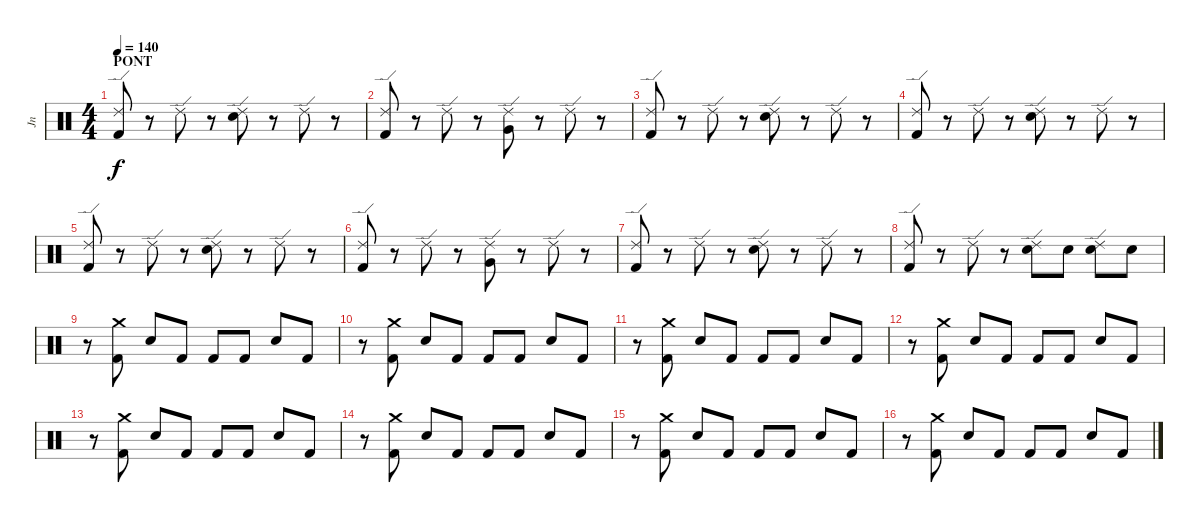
\track ("Jn" "Jn") {instrument percussion}
\staff {score}
\articulation defaults
\ts (4 4)
\section ("" "PONT")
\tempo 140
\clef neutral
\ks c
("Ride (edge) 2" "Kick (hit) 2").8{dy f} r.8 "Ride (edge) 2".8 r.8 ("Ride (edge) 2" "Electric Snare (hit)").8 r.8 "Ride (edge) 2".8 r.8 |
("Ride (edge) 2" "Kick (hit) 2").8 r.8 "Ride (edge) 2".8 r.8 ("Ride (edge) 2" "Very Low Tom (hit)").8 r.8 "Ride (edge) 2".8 r.8 |
("Ride (edge) 2" "Kick (hit) 2").8 r.8 "Ride (edge) 2".8 r.8 ("Ride (edge) 2" "Electric Snare (hit)").8 r.8 "Ride (edge) 2".8 r.8 |
("Ride (edge) 2" "Kick (hit) 2").8 r.8 "Ride (edge) 2".8 r.8 ("Ride (edge) 2" "Electric Snare (hit)").8 r.8 "Ride (edge) 2".8 r.8 |
("Ride (edge) 2" "Kick (hit) 2").8 r.8 "Ride (edge) 2".8 r.8 ("Ride (edge) 2" "Electric Snare (hit)").8 r.8 "Ride (edge) 2".8 r.8 |
("Ride (edge) 2" "Kick (hit) 2").8 r.8 "Ride (edge) 2".8 r.8 ("Ride (edge) 2" "Very Low Tom (hit)").8 r.8 "Ride (edge) 2".8 r.8 |
("Ride (edge) 2" "Kick (hit) 2").8 r.8 "Ride (edge) 2".8 r.8 ("Ride (edge) 2" "Electric Snare (hit)").8 r.8 "Ride (edge) 2".8 r.8 |
("Ride (edge) 2" "Kick (hit) 2").8 r.8 "Ride (edge) 2".8 r.8 ("Ride (edge) 2" "Electric Snare (hit)").8 "Electric Snare (hit)".8 ("Ride (edge) 2" "Electric Snare (hit)").8 "Electric Snare (hit)".8 |
r.8 ("Crash medium (hit)" "Kick (hit) 2").8 "Electric Snare (hit)".8 "Kick (hit) 2".8 "Kick (hit) 2".8 "Kick (hit) 2".8 "Electric Snare (hit)".8 "Kick (hit) 2".8 |
r.8 ("Crash medium (hit)" "Kick (hit) 2").8 "Electric Snare (hit)".8 "Kick (hit) 2".8 "Kick (hit) 2".8 "Kick (hit) 2".8 "Electric Snare (hit)".8 "Kick (hit) 2".8 |
r.8 ("Crash medium (hit)" "Kick (hit) 2").8 "Electric Snare (hit)".8 "Kick (hit) 2".8 "Kick (hit) 2".8 "Kick (hit) 2".8 "Electric Snare (hit)".8 "Kick (hit) 2".8 |
r.8 ("Crash medium (hit)" "Kick (hit) 2").8 "Electric Snare (hit)".8 "Kick (hit) 2".8 "Kick (hit) 2".8 "Kick (hit) 2".8 "Electric Snare (hit)".8 "Kick (hit) 2".8 |
r.8 ("Crash medium (hit)" "Kick (hit) 2").8 "Electric Snare (hit)".8 "Kick (hit) 2".8 "Kick (hit) 2".8 "Kick (hit) 2".8 "Electric Snare (hit)".8 "Kick (hit) 2".8 |
r.8 ("Crash medium (hit)" "Kick (hit) 2").8 "Electric Snare (hit)".8 "Kick (hit) 2".8 "Kick (hit) 2".8 "Kick (hit) 2".8 "Electric Snare (hit)".8 "Kick (hit) 2".8 |
r.8 ("Crash medium (hit)" "Kick (hit) 2").8 "Electric Snare (hit)".8 "Kick (hit) 2".8 "Kick (hit) 2".8 "Kick (hit) 2".8 "Electric Snare (hit)".8 "Kick (hit) 2".8 |
r.8 ("Crash medium (hit)" "Kick (hit) 2").8 "Electric Snare (hit)".8 "Kick (hit) 2".8 "Kick (hit) 2".8 "Kick (hit) 2".8 "Electric Snare (hit)".8 "Kick (hit) 2".8
